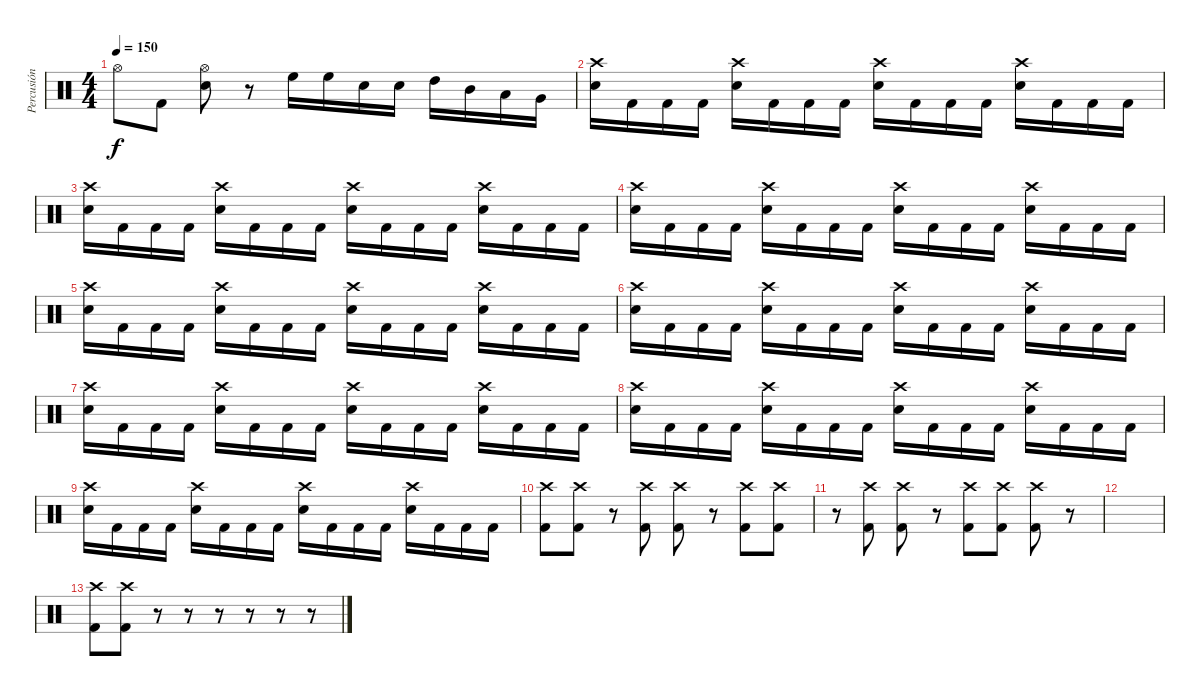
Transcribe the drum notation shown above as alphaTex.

\track ("Percusión" "Percusión") {instrument percussion}
\staff {score}
\articulation defaults
\ts (4 4)
\tempo 150
\clef neutral
\ks c "Hi-Hat (open)".8{dy f} "Kick (hit) 2".8
("Hi-Hat (open)" "Electric Snare (hit)").8 r.8 "High Floor Tom (hit)".16 "High Floor Tom (hit)".16 "Electric Snare (hit)".16 "Electric Snare (hit)".16 "High Tom (hit)".16 "Mid Tom (hit)".16 "Low Tom (hit)".16 "Very Low Tom (hit)".16 |
("Crash high (hit)" "Electric Snare (hit)").16 "Kick (hit) 2".16 "Kick (hit) 2".16 "Kick (hit) 2".16 ("Crash high (hit)" "Electric Snare (hit)").16 "Kick (hit) 2".16 "Kick (hit) 2".16 "Kick (hit) 2".16 ("Crash high (hit)" "Electric Snare (hit)").16 "Kick (hit) 2".16 "Kick (hit) 2".16 "Kick (hit) 2".16 ("Crash high (hit)" "Electric Snare (hit)").16 "Kick (hit) 2".16 "Kick (hit) 2".16 "Kick (hit) 2".16 |
("Crash high (hit)" "Electric Snare (hit)").16 "Kick (hit) 2".16 "Kick (hit) 2".16 "Kick (hit) 2".16 ("Crash high (hit)" "Electric Snare (hit)").16 "Kick (hit) 2".16 "Kick (hit) 2".16 "Kick (hit) 2".16 ("Crash high (hit)" "Electric Snare (hit)").16 "Kick (hit) 2".16 "Kick (hit) 2".16 "Kick (hit) 2".16 ("Crash high (hit)" "Electric Snare (hit)").16 "Kick (hit) 2".16 "Kick (hit) 2".16 "Kick (hit) 2".16 |
("Crash high (hit)" "Electric Snare (hit)").16 "Kick (hit) 2".16 "Kick (hit) 2".16 "Kick (hit) 2".16 ("Crash high (hit)" "Electric Snare (hit)").16 "Kick (hit) 2".16 "Kick (hit) 2".16 "Kick (hit) 2".16 ("Crash high (hit)" "Electric Snare (hit)").16 "Kick (hit) 2".16 "Kick (hit) 2".16 "Kick (hit) 2".16 ("Crash high (hit)" "Electric Snare (hit)").16 "Kick (hit) 2".16 "Kick (hit) 2".16 "Kick (hit) 2".16 |
("Crash high (hit)" "Electric Snare (hit)").16 "Kick (hit) 2".16 "Kick (hit) 2".16 "Kick (hit) 2".16 ("Crash high (hit)" "Electric Snare (hit)").16 "Kick (hit) 2".16 "Kick (hit) 2".16 "Kick (hit) 2".16 ("Crash high (hit)" "Electric Snare (hit)").16 "Kick (hit) 2".16 "Kick (hit) 2".16 "Kick (hit) 2".16 ("Crash high (hit)" "Electric Snare (hit)").16 "Kick (hit) 2".16 "Kick (hit) 2".16 "Kick (hit) 2".16 |
("Crash high (hit)" "Electric Snare (hit)").16 "Kick (hit) 2".16 "Kick (hit) 2".16 "Kick (hit) 2".16 ("Crash high (hit)" "Electric Snare (hit)").16 "Kick (hit) 2".16 "Kick (hit) 2".16 "Kick (hit) 2".16 ("Crash high (hit)" "Electric Snare (hit)").16 "Kick (hit) 2".16 "Kick (hit) 2".16 "Kick (hit) 2".16 ("Crash high (hit)" "Electric Snare (hit)").16 "Kick (hit) 2".16 "Kick (hit) 2".16 "Kick (hit) 2".16 |
("Crash high (hit)" "Electric Snare (hit)").16 "Kick (hit) 2".16 "Kick (hit) 2".16 "Kick (hit) 2".16 ("Crash high (hit)" "Electric Snare (hit)").16 "Kick (hit) 2".16 "Kick (hit) 2".16 "Kick (hit) 2".16 ("Crash high (hit)" "Electric Snare (hit)").16 "Kick (hit) 2".16 "Kick (hit) 2".16 "Kick (hit) 2".16 ("Crash high (hit)" "Electric Snare (hit)").16 "Kick (hit) 2".16 "Kick (hit) 2".16 "Kick (hit) 2".16 |
("Crash high (hit)" "Electric Snare (hit)").16 "Kick (hit) 2".16 "Kick (hit) 2".16 "Kick (hit) 2".16 ("Crash high (hit)" "Electric Snare (hit)").16 "Kick (hit) 2".16 "Kick (hit) 2".16 "Kick (hit) 2".16 ("Crash high (hit)" "Electric Snare (hit)").16 "Kick (hit) 2".16 "Kick (hit) 2".16 "Kick (hit) 2".16 ("Crash high (hit)" "Electric Snare (hit)").16 "Kick (hit) 2".16 "Kick (hit) 2".16 "Kick (hit) 2".16 |
("Crash high (hit)" "Electric Snare (hit)").16 "Kick (hit) 2".16 "Kick (hit) 2".16 "Kick (hit) 2".16 ("Crash high (hit)" "Electric Snare (hit)").16 "Kick (hit) 2".16 "Kick (hit) 2".16 "Kick (hit) 2".16 ("Crash high (hit)" "Electric Snare (hit)").16 "Kick (hit) 2".16 "Kick (hit) 2".16 "Kick (hit) 2".16 ("Crash high (hit)" "Electric Snare (hit)").16 "Kick (hit) 2".16 "Kick (hit) 2".16 "Kick (hit) 2".16 |
("Crash high (hit)" "Kick (hit) 2").8 ("Crash high (hit)" "Kick (hit) 2").8 r.8 ("Crash high (hit)" "Kick (hit) 2").8 ("Crash high (hit)" "Kick (hit) 2").8 r.8 ("Crash high (hit)" "Kick (hit) 2").8 ("Crash high (hit)" "Kick (hit) 2").8 |
r.8 ("Crash high (hit)" "Kick (hit) 2").8 ("Crash high (hit)" "Kick (hit) 2").8 r.8 ("Crash high (hit)" "Kick (hit) 2").8 ("Crash high (hit)" "Kick (hit) 2").8 ("Crash high (hit)" "Kick (hit) 2").8 r.8 |
|
("Crash high (hit)" "Kick (hit) 2").8 ("Crash high (hit)" "Kick (hit) 2").8 r.8 r.8 r.8 r.8 r.8 r.8
